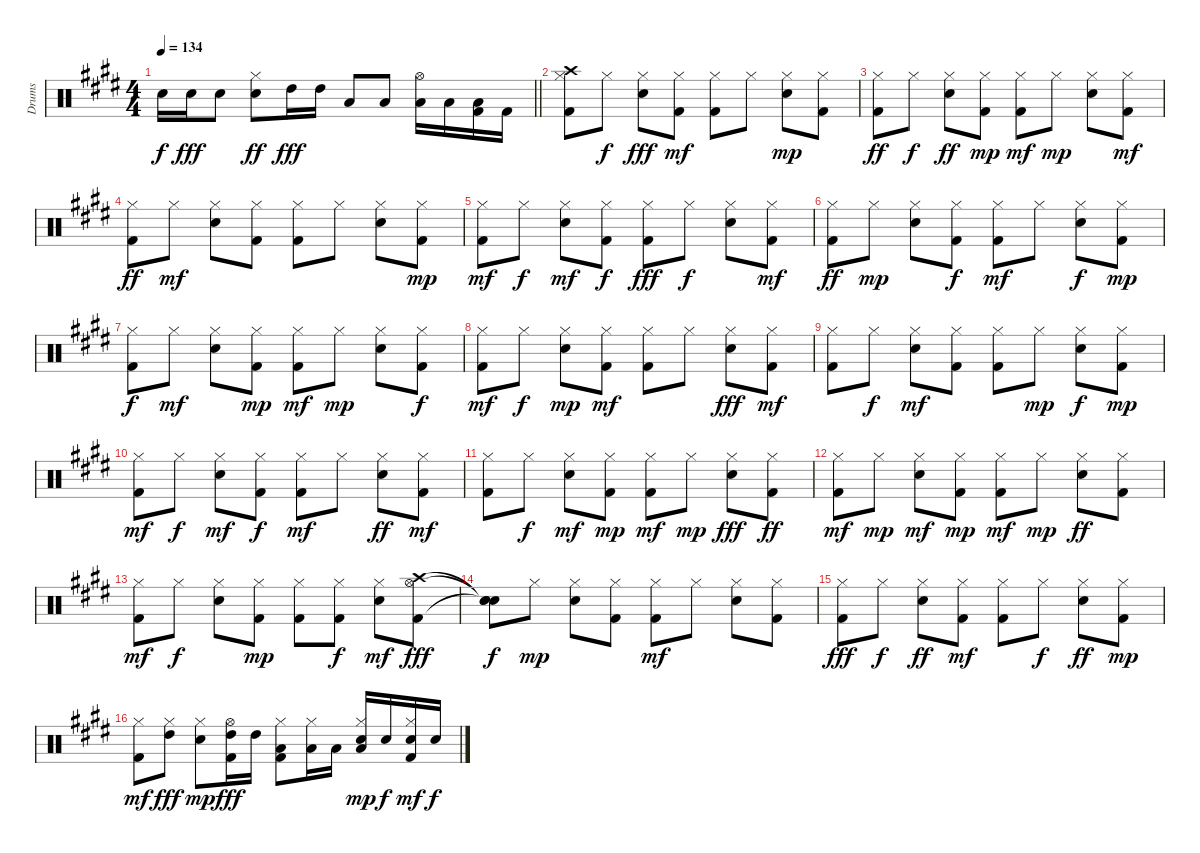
\track ("Drums" "Drums") {instrument percussion}
\staff {score}
\articulation defaults
\ts (4 4)
\tempo 134
\clef neutral
\barLineRight lightlight
\ks e "Snare (hit) 2".16{dy f} "Snare (hit) 2".16{dy fff} "Snare (hit) 2".8
("Snare (hit) 2" "Hi-Hat (closed)").8{dy ff} "High Tom (hit)".16{dy fff} "High Tom (hit)".16 "Low Tom (hit)".8 "Low Tom (hit)".8 ("Low Floor Tom (hit)" "Hi-Hat (open)").16 "Low Tom (hit)".16 ("Kick (hit) 2" "Low Floor Tom (hit)").16 "Kick (hit) 2".16 |
("Kick (hit) 2" "Hi-Hat (closed)" "Crash high (hit)").8 "Hi-Hat (closed)".8{dy f} ("Snare (hit) 2" "Hi-Hat (closed)").8{dy fff} ("Kick (hit) 2" "Hi-Hat (closed)").8{dy mf} ("Kick (hit) 2" "Hi-Hat (closed)").8 "Hi-Hat (closed)".8 ("Snare (hit) 2" "Hi-Hat (closed)").8{dy mp} ("Kick (hit) 2" "Hi-Hat (closed)").8 |
("Kick (hit) 2" "Hi-Hat (closed)").8{dy ff} "Hi-Hat (closed)".8{dy f} ("Snare (hit) 2" "Hi-Hat (closed)").8{dy ff} ("Kick (hit) 2" "Hi-Hat (closed)").8{dy mp} ("Kick (hit) 2" "Hi-Hat (closed)").8{dy mf} "Hi-Hat (closed)".8{dy mp} ("Snare (hit) 2" "Hi-Hat (closed)").8 ("Kick (hit) 2" "Hi-Hat (closed)").8{dy mf} |
("Kick (hit) 2" "Hi-Hat (closed)").8{dy ff} "Hi-Hat (closed)".8{dy mf} ("Snare (hit) 2" "Hi-Hat (closed)").8 ("Kick (hit) 2" "Hi-Hat (closed)").8 ("Kick (hit) 2" "Hi-Hat (closed)").8 "Hi-Hat (closed)".8 ("Snare (hit) 2" "Hi-Hat (closed)").8 ("Kick (hit) 2" "Hi-Hat (closed)").8{dy mp} |
("Kick (hit) 2" "Hi-Hat (closed)").8{dy mf} "Hi-Hat (closed)".8{dy f} ("Snare (hit) 2" "Hi-Hat (closed)").8{dy mf} ("Kick (hit) 2" "Hi-Hat (closed)").8{dy f} ("Kick (hit) 2" "Hi-Hat (closed)").8{dy fff} "Hi-Hat (closed)".8{dy f} ("Snare (hit) 2" "Hi-Hat (closed)").8 ("Kick (hit) 2" "Hi-Hat (closed)").8{dy mf} |
("Kick (hit) 2" "Hi-Hat (closed)").8{dy ff} "Hi-Hat (closed)".8{dy mp} ("Snare (hit) 2" "Hi-Hat (closed)").8 ("Kick (hit) 2" "Hi-Hat (closed)").8{dy f} ("Kick (hit) 2" "Hi-Hat (closed)").8{dy mf} "Hi-Hat (closed)".8 ("Snare (hit) 2" "Hi-Hat (closed)").8{dy f} ("Kick (hit) 2" "Hi-Hat (closed)").8{dy mp} |
("Kick (hit) 2" "Hi-Hat (closed)").8{dy f} "Hi-Hat (closed)".8{dy mf} ("Snare (hit) 2" "Hi-Hat (closed)").8 ("Kick (hit) 2" "Hi-Hat (closed)").8{dy mp} ("Kick (hit) 2" "Hi-Hat (closed)").8{dy mf} "Hi-Hat (closed)".8{dy mp} ("Snare (hit) 2" "Hi-Hat (closed)").8 ("Kick (hit) 2" "Hi-Hat (closed)").8{dy f} |
("Kick (hit) 2" "Hi-Hat (closed)").8{dy mf} "Hi-Hat (closed)".8{dy f} ("Snare (hit) 2" "Hi-Hat (closed)").8{dy mp} ("Kick (hit) 2" "Hi-Hat (closed)").8{dy mf} ("Kick (hit) 2" "Hi-Hat (closed)").8 "Hi-Hat (closed)".8 ("Snare (hit) 2" "Hi-Hat (closed)").8{dy fff} ("Kick (hit) 2" "Hi-Hat (closed)").8{dy mf} |
("Kick (hit) 2" "Hi-Hat (closed)").8 "Hi-Hat (closed)".8{dy f} ("Snare (hit) 2" "Hi-Hat (closed)").8{dy mf} ("Kick (hit) 2" "Hi-Hat (closed)").8 ("Kick (hit) 2" "Hi-Hat (closed)").8 "Hi-Hat (closed)".8{dy mp} ("Snare (hit) 2" "Hi-Hat (closed)").8{dy f} ("Kick (hit) 2" "Hi-Hat (closed)").8{dy mp} |
("Kick (hit) 2" "Hi-Hat (closed)").8{dy mf} "Hi-Hat (closed)".8{dy f} ("Snare (hit) 2" "Hi-Hat (closed)").8{dy mf} ("Kick (hit) 2" "Hi-Hat (closed)").8{dy f} ("Kick (hit) 2" "Hi-Hat (closed)").8{dy mf} "Hi-Hat (closed)".8 ("Snare (hit) 2" "Hi-Hat (closed)").8{dy ff} ("Kick (hit) 2" "Hi-Hat (closed)").8{dy mf} |
("Kick (hit) 2" "Hi-Hat (closed)").8 "Hi-Hat (closed)".8{dy f} ("Snare (hit) 2" "Hi-Hat (closed)").8{dy mf} ("Kick (hit) 2" "Hi-Hat (closed)").8{dy mp} ("Kick (hit) 2" "Hi-Hat (closed)").8{dy mf} "Hi-Hat (closed)".8{dy mp} ("Snare (hit) 2" "Hi-Hat (closed)").8{dy fff} ("Kick (hit) 2" "Hi-Hat (closed)").8{dy ff} |
("Kick (hit) 2" "Hi-Hat (closed)").8{dy mf} "Hi-Hat (closed)".8{dy mp} ("Snare (hit) 2" "Hi-Hat (closed)").8{dy mf} ("Kick (hit) 2" "Hi-Hat (closed)").8{dy mp} ("Kick (hit) 2" "Hi-Hat (closed)").8{dy mf} "Hi-Hat (closed)".8{dy mp} ("Snare (hit) 2" "Hi-Hat (closed)").8{dy ff} ("Kick (hit) 2" "Hi-Hat (closed)").8 |
("Kick (hit) 2" "Hi-Hat (closed)").8{dy mf} "Hi-Hat (closed)".8{dy f} ("Snare (hit) 2" "Hi-Hat (closed)").8 ("Kick (hit) 2" "Hi-Hat (closed)").8{dy mp} ("Kick (hit) 2" "Hi-Hat (closed)").8 ("Kick (hit) 2" "Hi-Hat (closed)").8{dy f} ("Snare (hit) 2" "Hi-Hat (closed)").8{dy mf} ("Kick (hit) 2" "Hi-Hat (open)" "Crash high (hit)").8{dy fff} |
("Snare (hit)"{t} "Snare (hit)"{t} "Snare (hit)"{t}).8{dy f} "Hi-Hat (closed)".8{dy mp} ("Snare (hit) 2" "Hi-Hat (closed)").8 ("Kick (hit) 2" "Hi-Hat (closed)").8 ("Kick (hit) 2" "Hi-Hat (closed)").8{dy mf} "Hi-Hat (closed)".8 ("Snare (hit) 2" "Hi-Hat (closed)").8 ("Kick (hit) 2" "Hi-Hat (closed)").8 |
("Kick (hit) 2" "Hi-Hat (closed)").8{dy fff} "Hi-Hat (closed)".8{dy f} ("Snare (hit) 2" "Hi-Hat (closed)").8{dy ff} ("Kick (hit) 2" "Hi-Hat (closed)").8{dy mf} ("Kick (hit) 2" "Hi-Hat (closed)").8 "Hi-Hat (closed)".8{dy f} ("Snare (hit) 2" "Hi-Hat (closed)").8{dy ff} ("Kick (hit) 2" "Hi-Hat (closed)").8{dy mp} |
("Kick (hit) 2" "Hi-Hat (closed)").8{dy mf} ("Hi-Hat (closed)" "High Tom (hit)").8{dy fff} ("Snare (hit) 2" "Hi-Hat (closed)").8{dy mp} ("Kick (hit) 2" "Hi-Hat (open)" "High Tom (hit)").16{dy fff} "High Tom (hit)".16 ("Kick (hit) 2" "Hi-Hat (closed)" "Low Tom (hit)").8 ("Hi-Hat (closed)" "Low Tom (hit)").16 "Low Tom (hit)".16 ("Snare (hit) 2" "Low Floor Tom (hit)" "Hi-Hat (closed)").16{dy mp} "Snare (hit) 2".16{dy f} ("Kick (hit) 2" "Snare (hit) 2" "Hi-Hat (closed)").16{dy mf} "Snare (hit) 2".16{dy f}
